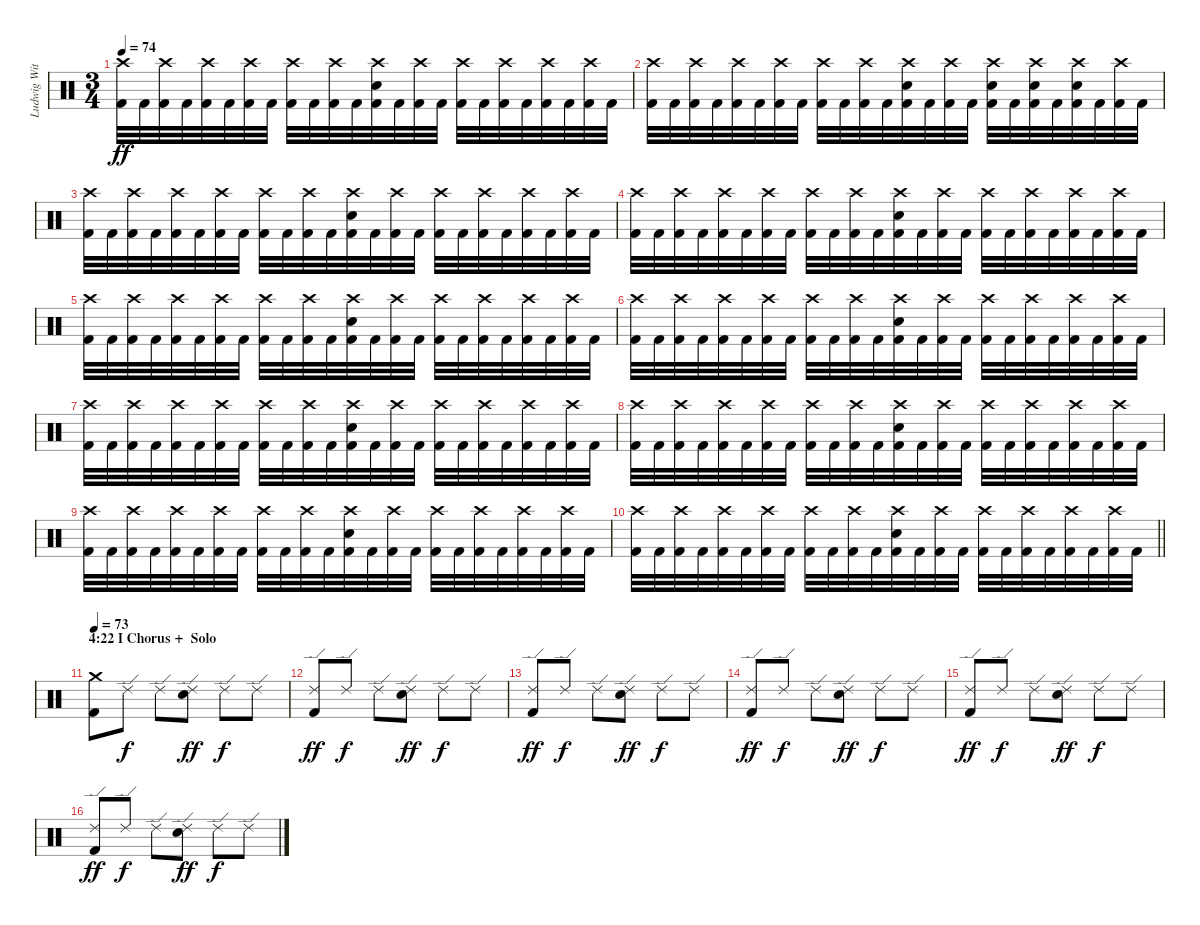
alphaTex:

\track ("Ludwig Witt (Drums)" "Ludwig Wit") {instrument percussion}
\staff
\articulation defaults
\ts (3 4)
\tempo 74
\clef neutral
\ks c
("Crash high (hit)" "Kick (hit) 2").32{dy ff} "Kick (hit) 2".32 ("Crash high (hit)" "Kick (hit) 2").32 "Kick (hit) 2".32 ("Crash high (hit)" "Kick (hit) 2").32 "Kick (hit) 2".32 ("Crash high (hit)" "Kick (hit) 2").32 "Kick (hit) 2".32 ("Crash high (hit)" "Kick (hit) 2").32 "Kick (hit) 2".32 ("Crash high (hit)" "Kick (hit) 2").32 "Kick (hit) 2".32 ("Crash high (hit)" "Electric Snare (hit)" "Kick (hit) 2").32 "Kick (hit) 2".32 ("Crash high (hit)" "Kick (hit) 2").32 "Kick (hit) 2".32 ("Crash high (hit)" "Kick (hit) 2").32 "Kick (hit) 2".32 ("Crash high (hit)" "Kick (hit) 2").32 "Kick (hit) 2".32 ("Crash high (hit)" "Kick (hit) 2").32 "Kick (hit) 2".32 ("Crash high (hit)" "Kick (hit) 2").32 "Kick (hit) 2".32 |
("Crash high (hit)" "Kick (hit) 2").32 "Kick (hit) 2".32 ("Crash high (hit)" "Kick (hit) 2").32 "Kick (hit) 2".32 ("Crash high (hit)" "Kick (hit) 2").32 "Kick (hit) 2".32 ("Crash high (hit)" "Kick (hit) 2").32 "Kick (hit) 2".32 ("Crash high (hit)" "Kick (hit) 2").32 "Kick (hit) 2".32 ("Crash high (hit)" "Kick (hit) 2").32 "Kick (hit) 2".32 ("Crash high (hit)" "Electric Snare (hit)" "Kick (hit) 2").32 "Kick (hit) 2".32 ("Crash high (hit)" "Kick (hit) 2").32 "Kick (hit) 2".32 ("Crash high (hit)" "Electric Snare (hit)" "Kick (hit) 2").32 "Kick (hit) 2".32 ("Crash high (hit)" "Electric Snare (hit)" "Kick (hit) 2").32 "Kick (hit) 2".32 ("Crash high (hit)" "Electric Snare (hit)" "Kick (hit) 2").32 "Kick (hit) 2".32 ("Crash high (hit)" "Kick (hit) 2").32 "Kick (hit) 2".32 |
("Crash high (hit)" "Kick (hit) 2").32 "Kick (hit) 2".32 ("Crash high (hit)" "Kick (hit) 2").32 "Kick (hit) 2".32 ("Crash high (hit)" "Kick (hit) 2").32 "Kick (hit) 2".32 ("Crash high (hit)" "Kick (hit) 2").32 "Kick (hit) 2".32 ("Crash high (hit)" "Kick (hit) 2").32 "Kick (hit) 2".32 ("Crash high (hit)" "Kick (hit) 2").32 "Kick (hit) 2".32 ("Crash high (hit)" "Electric Snare (hit)" "Kick (hit) 2").32 "Kick (hit) 2".32 ("Crash high (hit)" "Kick (hit) 2").32 "Kick (hit) 2".32 ("Crash high (hit)" "Kick (hit) 2").32 "Kick (hit) 2".32 ("Crash high (hit)" "Kick (hit) 2").32 "Kick (hit) 2".32 ("Crash high (hit)" "Kick (hit) 2").32 "Kick (hit) 2".32 ("Crash high (hit)" "Kick (hit) 2").32 "Kick (hit) 2".32 |
("Crash high (hit)" "Kick (hit) 2").32 "Kick (hit) 2".32 ("Crash high (hit)" "Kick (hit) 2").32 "Kick (hit) 2".32 ("Crash high (hit)" "Kick (hit) 2").32 "Kick (hit) 2".32 ("Crash high (hit)" "Kick (hit) 2").32 "Kick (hit) 2".32 ("Crash high (hit)" "Kick (hit) 2").32 "Kick (hit) 2".32 ("Crash high (hit)" "Kick (hit) 2").32 "Kick (hit) 2".32 ("Crash high (hit)" "Electric Snare (hit)" "Kick (hit) 2").32 "Kick (hit) 2".32 ("Crash high (hit)" "Kick (hit) 2").32 "Kick (hit) 2".32 ("Crash high (hit)" "Kick (hit) 2").32 "Kick (hit) 2".32 ("Crash high (hit)" "Kick (hit) 2").32 "Kick (hit) 2".32 ("Crash high (hit)" "Kick (hit) 2").32 "Kick (hit) 2".32 ("Crash high (hit)" "Kick (hit) 2").32 "Kick (hit) 2".32 |
("Crash high (hit)" "Kick (hit) 2").32 "Kick (hit) 2".32 ("Crash high (hit)" "Kick (hit) 2").32 "Kick (hit) 2".32 ("Crash high (hit)" "Kick (hit) 2").32 "Kick (hit) 2".32 ("Crash high (hit)" "Kick (hit) 2").32 "Kick (hit) 2".32 ("Crash high (hit)" "Kick (hit) 2").32 "Kick (hit) 2".32 ("Crash high (hit)" "Kick (hit) 2").32 "Kick (hit) 2".32 ("Crash high (hit)" "Electric Snare (hit)" "Kick (hit) 2").32 "Kick (hit) 2".32 ("Crash high (hit)" "Kick (hit) 2").32 "Kick (hit) 2".32 ("Crash high (hit)" "Kick (hit) 2").32 "Kick (hit) 2".32 ("Crash high (hit)" "Kick (hit) 2").32 "Kick (hit) 2".32 ("Crash high (hit)" "Kick (hit) 2").32 "Kick (hit) 2".32 ("Crash high (hit)" "Kick (hit) 2").32 "Kick (hit) 2".32 |
("Crash high (hit)" "Kick (hit) 2").32 "Kick (hit) 2".32 ("Crash high (hit)" "Kick (hit) 2").32 "Kick (hit) 2".32 ("Crash high (hit)" "Kick (hit) 2").32 "Kick (hit) 2".32 ("Crash high (hit)" "Kick (hit) 2").32 "Kick (hit) 2".32 ("Crash high (hit)" "Kick (hit) 2").32 "Kick (hit) 2".32 ("Crash high (hit)" "Kick (hit) 2").32 "Kick (hit) 2".32 ("Crash high (hit)" "Electric Snare (hit)" "Kick (hit) 2").32 "Kick (hit) 2".32 ("Crash high (hit)" "Kick (hit) 2").32 "Kick (hit) 2".32 ("Crash high (hit)" "Kick (hit) 2").32 "Kick (hit) 2".32 ("Crash high (hit)" "Kick (hit) 2").32 "Kick (hit) 2".32 ("Crash high (hit)" "Kick (hit) 2").32 "Kick (hit) 2".32 ("Crash high (hit)" "Kick (hit) 2").32 "Kick (hit) 2".32 |
("Crash high (hit)" "Kick (hit) 2").32 "Kick (hit) 2".32 ("Crash high (hit)" "Kick (hit) 2").32 "Kick (hit) 2".32 ("Crash high (hit)" "Kick (hit) 2").32 "Kick (hit) 2".32 ("Crash high (hit)" "Kick (hit) 2").32 "Kick (hit) 2".32 ("Crash high (hit)" "Kick (hit) 2").32 "Kick (hit) 2".32 ("Crash high (hit)" "Kick (hit) 2").32 "Kick (hit) 2".32 ("Crash high (hit)" "Electric Snare (hit)" "Kick (hit) 2").32 "Kick (hit) 2".32 ("Crash high (hit)" "Kick (hit) 2").32 "Kick (hit) 2".32 ("Crash high (hit)" "Kick (hit) 2").32 "Kick (hit) 2".32 ("Crash high (hit)" "Kick (hit) 2").32 "Kick (hit) 2".32 ("Crash high (hit)" "Kick (hit) 2").32 "Kick (hit) 2".32 ("Crash high (hit)" "Kick (hit) 2").32 "Kick (hit) 2".32 |
("Crash high (hit)" "Kick (hit) 2").32 "Kick (hit) 2".32 ("Crash high (hit)" "Kick (hit) 2").32 "Kick (hit) 2".32 ("Crash high (hit)" "Kick (hit) 2").32 "Kick (hit) 2".32 ("Crash high (hit)" "Kick (hit) 2").32 "Kick (hit) 2".32 ("Crash high (hit)" "Kick (hit) 2").32 "Kick (hit) 2".32 ("Crash high (hit)" "Kick (hit) 2").32 "Kick (hit) 2".32 ("Crash high (hit)" "Electric Snare (hit)" "Kick (hit) 2").32 "Kick (hit) 2".32 ("Crash high (hit)" "Kick (hit) 2").32 "Kick (hit) 2".32 ("Crash high (hit)" "Kick (hit) 2").32 "Kick (hit) 2".32 ("Crash high (hit)" "Kick (hit) 2").32 "Kick (hit) 2".32 ("Crash high (hit)" "Kick (hit) 2").32 "Kick (hit) 2".32 ("Crash high (hit)" "Kick (hit) 2").32 "Kick (hit) 2".32 |
("Crash high (hit)" "Kick (hit) 2").32 "Kick (hit) 2".32 ("Crash high (hit)" "Kick (hit) 2").32 "Kick (hit) 2".32 ("Crash high (hit)" "Kick (hit) 2").32 "Kick (hit) 2".32 ("Crash high (hit)" "Kick (hit) 2").32 "Kick (hit) 2".32 ("Crash high (hit)" "Kick (hit) 2").32 "Kick (hit) 2".32 ("Crash high (hit)" "Kick (hit) 2").32 "Kick (hit) 2".32 ("Crash high (hit)" "Electric Snare (hit)" "Kick (hit) 2").32 "Kick (hit) 2".32 ("Crash high (hit)" "Kick (hit) 2").32 "Kick (hit) 2".32 ("Crash high (hit)" "Kick (hit) 2").32 "Kick (hit) 2".32 ("Crash high (hit)" "Kick (hit) 2").32 "Kick (hit) 2".32 ("Crash high (hit)" "Kick (hit) 2").32 "Kick (hit) 2".32 ("Crash high (hit)" "Kick (hit) 2").32 "Kick (hit) 2".32 |
\barLineRight lightlight
("Crash high (hit)" "Kick (hit) 2").32 "Kick (hit) 2".32 ("Crash high (hit)" "Kick (hit) 2").32 "Kick (hit) 2".32 ("Crash high (hit)" "Kick (hit) 2").32 "Kick (hit) 2".32 ("Crash high (hit)" "Kick (hit) 2").32 "Kick (hit) 2".32 ("Crash high (hit)" "Kick (hit) 2").32 "Kick (hit) 2".32 ("Crash high (hit)" "Kick (hit) 2").32 "Kick (hit) 2".32 ("Crash high (hit)" "Electric Snare (hit)" "Kick (hit) 2").32 "Kick (hit) 2".32 ("Crash high (hit)" "Kick (hit) 2").32 "Kick (hit) 2".32 ("Crash high (hit)" "Kick (hit) 2").32 "Kick (hit) 2".32 ("Crash high (hit)" "Kick (hit) 2").32 "Kick (hit) 2".32 ("Crash high (hit)" "Kick (hit) 2").32 "Kick (hit) 2".32 ("Crash high (hit)" "Kick (hit) 2").32 "Kick (hit) 2".32 |
\section ("" "4:22 I Chorus +  Solo")
\tempo 73
("Crash medium (hit)" "Kick (hit) 2").8 "Ride (edge) 2".8{dy f} "Ride (edge) 2".8 ("Ride (edge) 2" "Electric Snare (hit)").8{dy ff} "Ride (edge) 2".8{dy f} "Ride (edge) 2".8 |
("Ride (edge) 2" "Kick (hit) 2").8{dy ff} "Ride (edge) 2".8{dy f} "Ride (edge) 2".8 ("Ride (edge) 2" "Electric Snare (hit)").8{dy ff} "Ride (edge) 2".8{dy f} "Ride (edge) 2".8 |
("Ride (edge) 2" "Kick (hit) 2").8{dy ff} "Ride (edge) 2".8{dy f} "Ride (edge) 2".8 ("Ride (edge) 2" "Electric Snare (hit)").8{dy ff} "Ride (edge) 2".8{dy f} "Ride (edge) 2".8 |
("Ride (edge) 2" "Kick (hit) 2").8{dy ff} "Ride (edge) 2".8{dy f} "Ride (edge) 2".8 ("Ride (edge) 2" "Electric Snare (hit)").8{dy ff} "Ride (edge) 2".8{dy f} "Ride (edge) 2".8 |
("Ride (edge) 2" "Kick (hit) 2").8{dy ff} "Ride (edge) 2".8{dy f} "Ride (edge) 2".8 ("Ride (edge) 2" "Electric Snare (hit)").8{dy ff} "Ride (edge) 2".8{dy f} "Ride (edge) 2".8 |
("Ride (edge) 2" "Kick (hit) 2").8{dy ff} "Ride (edge) 2".8{dy f} "Ride (edge) 2".8 ("Ride (edge) 2" "Electric Snare (hit)").8{dy ff} "Ride (edge) 2".8{dy f} "Ride (edge) 2".8
